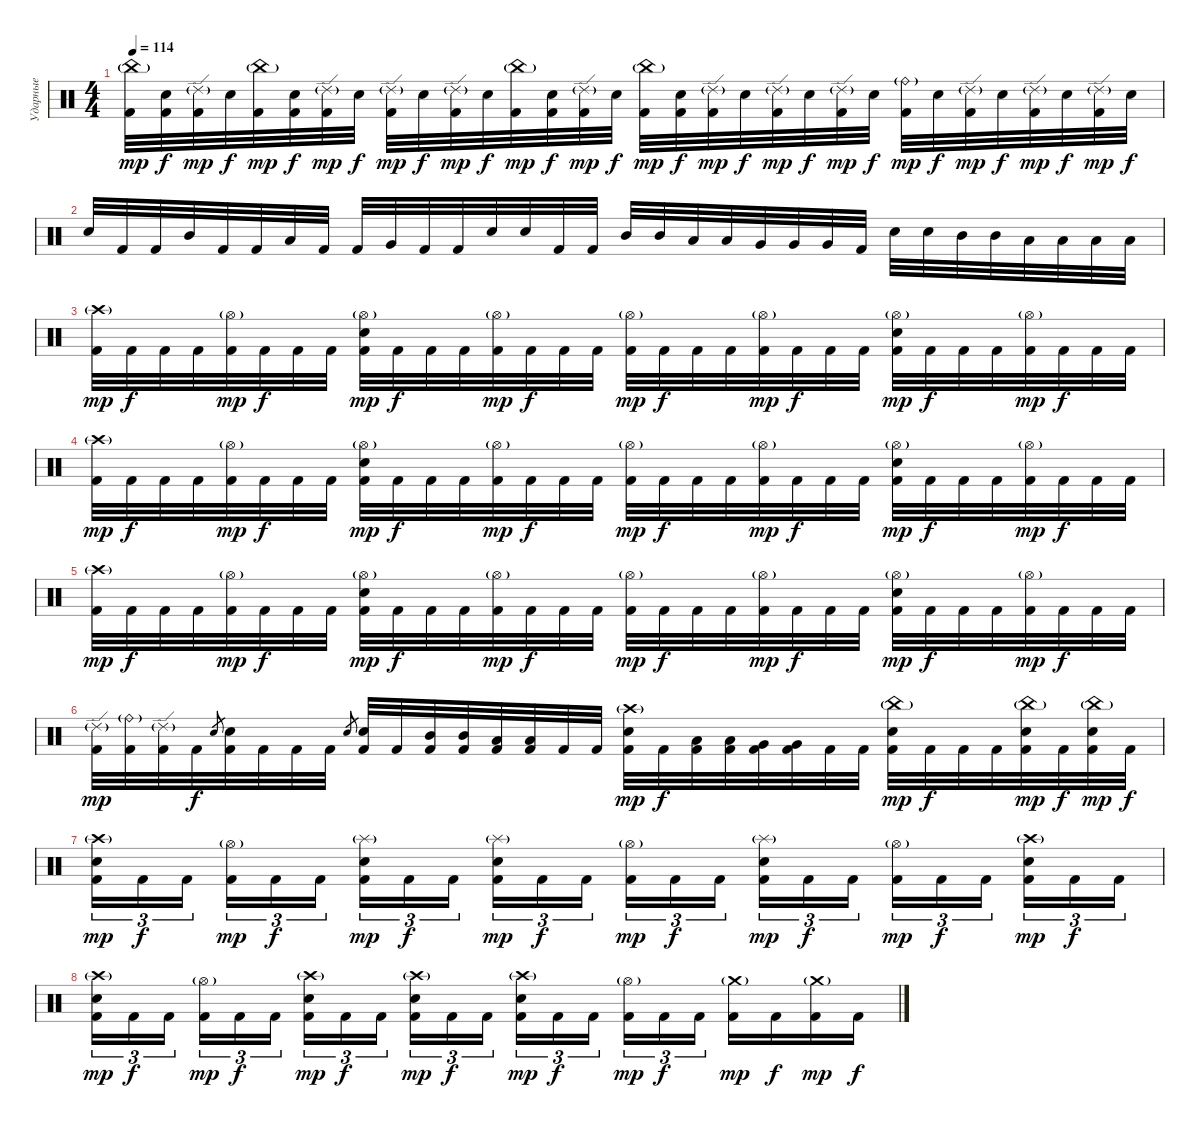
\track ("Ударные" "Ударные") {instrument percussion}
\staff {score}
\articulation defaults
\ts (4 4)
\tempo 114
\clef neutral
\ks c
("China (hit)"{g} "Kick (hit) 2").32{dy mp} ("Electric Snare (hit)" "Kick (hit) 2").32{dy f} ("Ride (edge) 2"{g} "Kick (hit) 2").32{dy mp} "Electric Snare (hit)".32{dy f} ("China (hit)"{g} "Kick (hit) 2").32{dy mp} ("Electric Snare (hit)" "Kick (hit) 2").32{dy f} ("Ride (edge) 2"{g} "Kick (hit) 2").32{dy mp} "Electric Snare (hit)".32{dy f} ("Ride (edge) 2"{g} "Kick (hit) 2").32{dy mp} "Electric Snare (hit)".32{dy f} ("Ride (edge) 2"{g} "Kick (hit) 2").32{dy mp} "Electric Snare (hit)".32{dy f} ("China (hit)"{g} "Kick (hit) 2").32{dy mp} ("Electric Snare (hit)" "Kick (hit) 2").32{dy f} ("Ride (edge) 2"{g} "Kick (hit) 2").32{dy mp} "Electric Snare (hit)".32{dy f} ("China (hit)"{g} "Kick (hit) 2").32{dy mp} ("Electric Snare (hit)" "Kick (hit) 2").32{dy f} ("Ride (edge) 2"{g} "Kick (hit) 2").32{dy mp} "Electric Snare (hit)".32{dy f} ("Ride (edge) 2"{g} "Kick (hit) 2").32{dy mp} "Electric Snare (hit)".32{dy f} ("Ride (edge) 2"{g} "Kick (hit) 2").32{dy mp} "Electric Snare (hit)".32{dy f} ("Ride (bell)"{g} "Kick (hit) 2").32{dy mp} "Electric Snare (hit)".32{dy f} ("Ride (edge) 2"{g} "Kick (hit) 2").32{dy mp} "Electric Snare (hit)".32{dy f} ("Ride (edge) 2"{g} "Kick (hit) 2").32{dy mp} "Electric Snare (hit)".32{dy f} ("Ride (edge) 2"{g} "Kick (hit) 2").32{dy mp} "Electric Snare (hit)".32{dy f} |
"Electric Snare (hit)".32 "Kick (hit) 2".32 "Kick (hit) 2".32 "Mid Tom (hit)".32 "Kick (hit) 2".32 "Kick (hit) 2".32 "Low Tom (hit)".32 "Kick (hit) 2".32 "Kick (hit) 2".32 "Very Low Tom (hit)".32 "Kick (hit) 2".32 "Kick (hit) 2".32 "Electric Snare (hit)".32 "Electric Snare (hit)".32 "Kick (hit) 2".32 "Kick (hit) 2".32 "Mid Tom (hit)".32 "Mid Tom (hit)".32 "Low Tom (hit)".32 "Low Tom (hit)".32 "Very Low Tom (hit)".32 "Very Low Tom (hit)".32 "Very Low Tom (hit)".32 "Kick (hit) 2".32 "Electric Snare (hit)".32 "Electric Snare (hit)".32 "Mid Tom (hit)".32 "Mid Tom (hit)".32 "Low Tom (hit)".32 "Low Tom (hit)".32 "Low Tom (hit)".32 "Low Tom (hit)".32 |
("Crash high (hit)"{g} "Kick (hit) 2").32{dy mp} "Kick (hit) 2".32{dy f} "Kick (hit) 2".32 "Kick (hit) 2".32 ("Hi-Hat (open)"{g} "Kick (hit) 2").32{dy mp} "Kick (hit) 2".32{dy f} "Kick (hit) 2".32 "Kick (hit) 2".32 ("Hi-Hat (open)"{g} "Electric Snare (hit)" "Kick (hit) 2").32{dy mp} "Kick (hit) 2".32{dy f} "Kick (hit) 2".32 "Kick (hit) 2".32 ("Hi-Hat (open)"{g} "Kick (hit) 2").32{dy mp} "Kick (hit) 2".32{dy f} "Kick (hit) 2".32 "Kick (hit) 2".32 ("Hi-Hat (open)"{g} "Kick (hit) 2").32{dy mp} "Kick (hit) 2".32{dy f} "Kick (hit) 2".32 "Kick (hit) 2".32 ("Hi-Hat (open)"{g} "Kick (hit) 2").32{dy mp} "Kick (hit) 2".32{dy f} "Kick (hit) 2".32 "Kick (hit) 2".32 ("Hi-Hat (open)"{g} "Electric Snare (hit)" "Kick (hit) 2").32{dy mp} "Kick (hit) 2".32{dy f} "Kick (hit) 2".32 "Kick (hit) 2".32 ("Hi-Hat (open)"{g} "Kick (hit) 2").32{dy mp} "Kick (hit) 2".32{dy f} "Kick (hit) 2".32 "Kick (hit) 2".32 |
("Crash high (hit)"{g} "Kick (hit) 2").32{dy mp} "Kick (hit) 2".32{dy f} "Kick (hit) 2".32 "Kick (hit) 2".32 ("Hi-Hat (open)"{g} "Kick (hit) 2").32{dy mp} "Kick (hit) 2".32{dy f} "Kick (hit) 2".32 "Kick (hit) 2".32 ("Hi-Hat (open)"{g} "Electric Snare (hit)" "Kick (hit) 2").32{dy mp} "Kick (hit) 2".32{dy f} "Kick (hit) 2".32 "Kick (hit) 2".32 ("Hi-Hat (open)"{g} "Kick (hit) 2").32{dy mp} "Kick (hit) 2".32{dy f} "Kick (hit) 2".32 "Kick (hit) 2".32 ("Hi-Hat (open)"{g} "Kick (hit) 2").32{dy mp} "Kick (hit) 2".32{dy f} "Kick (hit) 2".32 "Kick (hit) 2".32 ("Hi-Hat (open)"{g} "Kick (hit) 2").32{dy mp} "Kick (hit) 2".32{dy f} "Kick (hit) 2".32 "Kick (hit) 2".32 ("Hi-Hat (open)"{g} "Electric Snare (hit)" "Kick (hit) 2").32{dy mp} "Kick (hit) 2".32{dy f} "Kick (hit) 2".32 "Kick (hit) 2".32 ("Hi-Hat (open)"{g} "Kick (hit) 2").32{dy mp} "Kick (hit) 2".32{dy f} "Kick (hit) 2".32 "Kick (hit) 2".32 |
("Crash high (hit)"{g} "Kick (hit) 2").32{dy mp} "Kick (hit) 2".32{dy f} "Kick (hit) 2".32 "Kick (hit) 2".32 ("Hi-Hat (open)"{g} "Kick (hit) 2").32{dy mp} "Kick (hit) 2".32{dy f} "Kick (hit) 2".32 "Kick (hit) 2".32 ("Hi-Hat (open)"{g} "Electric Snare (hit)" "Kick (hit) 2").32{dy mp} "Kick (hit) 2".32{dy f} "Kick (hit) 2".32 "Kick (hit) 2".32 ("Hi-Hat (open)"{g} "Kick (hit) 2").32{dy mp} "Kick (hit) 2".32{dy f} "Kick (hit) 2".32 "Kick (hit) 2".32 ("Hi-Hat (open)"{g} "Kick (hit) 2").32{dy mp} "Kick (hit) 2".32{dy f} "Kick (hit) 2".32 "Kick (hit) 2".32 ("Hi-Hat (open)"{g} "Kick (hit) 2").32{dy mp} "Kick (hit) 2".32{dy f} "Kick (hit) 2".32 "Kick (hit) 2".32 ("Hi-Hat (open)"{g} "Electric Snare (hit)" "Kick (hit) 2").32{dy mp} "Kick (hit) 2".32{dy f} "Kick (hit) 2".32 "Kick (hit) 2".32 ("Hi-Hat (open)"{g} "Kick (hit) 2").32{dy mp} "Kick (hit) 2".32{dy f} "Kick (hit) 2".32 "Kick (hit) 2".32 |
("Ride (edge) 2"{g} "Kick (hit) 2").32{dy mp} ("Ride (bell)"{g} "Kick (hit) 2").32 ("Ride (edge) 2"{g} "Kick (hit) 2").32 "Kick (hit) 2".32{dy f} "Electric Snare (hit)".8{gr} ("Electric Snare (hit)" "Kick (hit) 2").32 "Kick (hit) 2".32 "Kick (hit) 2".32 "Kick (hit) 2".32 "Electric Snare (hit)".8{gr} ("Electric Snare (hit)" "Kick (hit) 2").32 "Kick (hit) 2".32 ("Mid Tom (hit)" "Kick (hit) 2").32 ("Mid Tom (hit)" "Kick (hit) 2").32 ("Low Tom (hit)" "Kick (hit) 2").32 ("Low Tom (hit)" "Kick (hit) 2").32 "Kick (hit) 2".32 "Kick (hit) 2".32 ("Crash high (hit)"{g} "Electric Snare (hit)" "Kick (hit) 2").32{dy mp} "Kick (hit) 2".32{dy f} ("Low Tom (hit)" "Kick (hit) 2").32 ("Low Tom (hit)" "Kick (hit) 2").32 ("Very Low Tom (hit)" "Kick (hit) 2").32 ("Very Low Tom (hit)" "Kick (hit) 2").32 "Kick (hit) 2".32 "Kick (hit) 2".32 ("China (hit)"{g} "Electric Snare (hit)" "Kick (hit) 2").32{dy mp} "Kick (hit) 2".32{dy f} "Kick (hit) 2".32 "Kick (hit) 2".32 ("China (hit)"{g} "Electric Snare (hit)" "Kick (hit) 2").32{dy mp} "Kick (hit) 2".32{dy f} ("China (hit)"{g} "Electric Snare (hit)" "Kick (hit) 2").32{dy mp} "Kick (hit) 2".32{dy f} |
("Crash high (hit)"{g} "Electric Snare (hit)" "Kick (hit) 2").16{tu (3 2) dy mp} "Kick (hit) 2".16{tu (3 2) dy f} "Kick (hit) 2".16{tu (3 2)} ("Hi-Hat (open)"{g} "Kick (hit) 2").16{tu (3 2) dy mp} "Kick (hit) 2".16{tu (3 2) dy f} "Kick (hit) 2".16{tu (3 2)} ("Splash (hit)"{g} "Electric Snare (hit)" "Kick (hit) 2").16{tu (3 2) dy mp} "Kick (hit) 2".16{tu (3 2) dy f} "Kick (hit) 2".16{tu (3 2)} ("Splash (hit)"{g} "Electric Snare (hit)" "Kick (hit) 2").16{tu (3 2) dy mp} "Kick (hit) 2".16{tu (3 2) dy f} "Kick (hit) 2".16{tu (3 2)} ("Hi-Hat (open)"{g} "Kick (hit) 2").16{tu (3 2) dy mp} "Kick (hit) 2".16{tu (3 2) dy f} "Kick (hit) 2".16{tu (3 2)} ("Splash (hit)"{g} "Electric Snare (hit)" "Kick (hit) 2").16{tu (3 2) dy mp} "Kick (hit) 2".16{tu (3 2) dy f} "Kick (hit) 2".16{tu (3 2)} ("Hi-Hat (open)"{g} "Kick (hit) 2").16{tu (3 2) dy mp} "Kick (hit) 2".16{tu (3 2) dy f} "Kick (hit) 2".16{tu (3 2)} ("Crash high (hit)"{g} "Electric Snare (hit)" "Kick (hit) 2").16{tu (3 2) dy mp} "Kick (hit) 2".16{tu (3 2) dy f} "Kick (hit) 2".16{tu (3 2)} |
("Crash high (hit)"{g} "Electric Snare (hit)" "Kick (hit) 2").16{tu (3 2) dy mp} "Kick (hit) 2".16{tu (3 2) dy f} "Kick (hit) 2".16{tu (3 2)} ("Hi-Hat (open)"{g} "Kick (hit) 2").16{tu (3 2) dy mp} "Kick (hit) 2".16{tu (3 2) dy f} "Kick (hit) 2".16{tu (3 2)} ("Crash high (hit)"{g} "Electric Snare (hit)" "Kick (hit) 2").16{tu (3 2) dy mp} "Kick (hit) 2".16{tu (3 2) dy f} "Kick (hit) 2".16{tu (3 2)} ("Crash high (hit)"{g} "Electric Snare (hit)" "Kick (hit) 2").16{tu (3 2) dy mp} "Kick (hit) 2".16{tu (3 2) dy f} "Kick (hit) 2".16{tu (3 2)} ("Crash high (hit)"{g} "Electric Snare (hit)" "Kick (hit) 2").16{tu (3 2) dy mp} "Kick (hit) 2".16{tu (3 2) dy f} "Kick (hit) 2".16{tu (3 2)} ("Hi-Hat (open)"{g} "Kick (hit) 2").16{tu (3 2) dy mp} "Kick (hit) 2".16{tu (3 2) dy f} "Kick (hit) 2".16{tu (3 2)} ("Crash medium (hit)"{g} "Kick (hit) 2").16{dy mp} "Kick (hit) 2".16{dy f} ("Crash medium (hit)"{g} "Kick (hit) 2").16{dy mp} "Kick (hit) 2".16{dy f}
